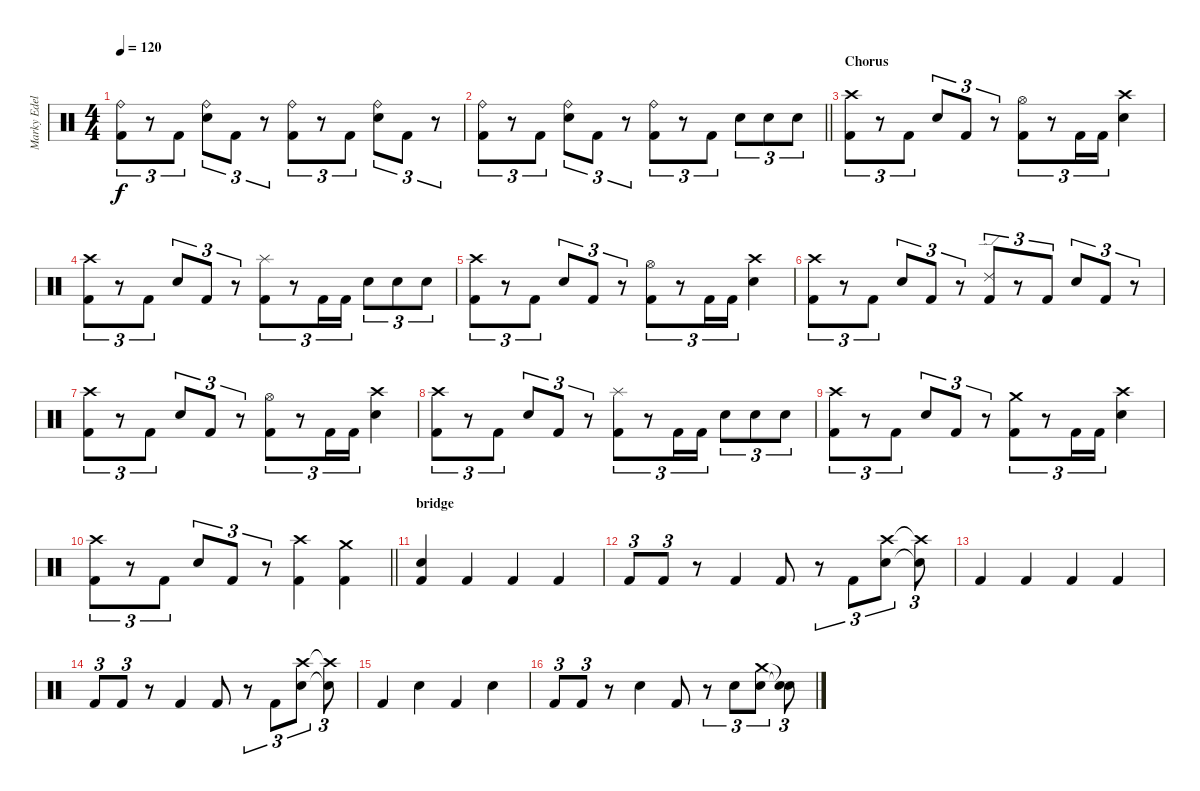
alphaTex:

\track ("Marky Edelmann" "Marky Edel") {instrument percussion}
\staff {score}
\articulation defaults
\ts (4 4)
\tempo 120
\clef neutral
\ks c
("Ride (bell)" "Kick (hit) 2").8{tu (3 2) dy f} r.8{tu (3 2)} "Kick (hit) 2".8{tu (3 2)} ("Ride (bell)" "Snare (hit) 2").8{tu (3 2)} "Kick (hit) 2".8{tu (3 2)} r.8{tu (3 2)} ("Ride (bell)" "Kick (hit) 2").8{tu (3 2)} r.8{tu (3 2)} "Kick (hit) 2".8{tu (3 2)} ("Ride (bell)" "Snare (hit) 2").8{tu (3 2)} "Kick (hit) 2".8{tu (3 2)} r.8{tu (3 2)} |
\barLineRight lightlight
("Ride (bell)" "Kick (hit) 2").8{tu (3 2)} r.8{tu (3 2)} "Kick (hit) 2".8{tu (3 2)} ("Ride (bell)" "Snare (hit) 2").8{tu (3 2)} "Kick (hit) 2".8{tu (3 2)} r.8{tu (3 2)} ("Ride (bell)" "Kick (hit) 2").8{tu (3 2)} r.8{tu (3 2)} "Kick (hit) 2".8{tu (3 2)} "Snare (hit) 2".8{tu (3 2)} "Snare (hit) 2".8{tu (3 2)} "Snare (hit) 2".8{tu (3 2)} |
\section ("" "Chorus")
("Crash high (hit)" "Kick (hit) 2").8{tu (3 2)} r.8{tu (3 2)} "Kick (hit) 2".8{tu (3 2)} "Snare (hit) 2".8{tu (3 2)} "Kick (hit) 2".8{tu (3 2)} r.8{tu (3 2)} ("Hi-Hat (open)" "Kick (hit) 2").8{tu (3 2)} r.8{tu (3 2)} "Kick (hit) 2".16{tu (3 2)} "Kick (hit) 2".16{tu (3 2)} ("Crash high (hit)" "Snare (hit) 2").4 |
("Crash high (hit)" "Kick (hit) 2").8{tu (3 2)} r.8{tu (3 2)} "Kick (hit) 2".8{tu (3 2)} "Snare (hit) 2".8{tu (3 2)} "Kick (hit) 2".8{tu (3 2)} r.8{tu (3 2)} ("Splash (hit)" "Kick (hit) 2").8{tu (3 2)} r.8{tu (3 2)} "Kick (hit) 2".16{tu (3 2)} "Kick (hit) 2".16{tu (3 2)} "Snare (hit) 2".8{tu (3 2)} "Snare (hit) 2".8{tu (3 2)} "Snare (hit) 2".8{tu (3 2)} |
("Crash high (hit)" "Kick (hit) 2").8{tu (3 2)} r.8{tu (3 2)} "Kick (hit) 2".8{tu (3 2)} "Snare (hit) 2".8{tu (3 2)} "Kick (hit) 2".8{tu (3 2)} r.8{tu (3 2)} ("Hi-Hat (open)" "Kick (hit) 2").8{tu (3 2)} r.8{tu (3 2)} "Kick (hit) 2".16{tu (3 2)} "Kick (hit) 2".16{tu (3 2)} ("Crash high (hit)" "Snare (hit) 2").4 |
("Crash high (hit)" "Kick (hit) 2").8{tu (3 2)} r.8{tu (3 2)} "Kick (hit) 2".8{tu (3 2)} "Snare (hit) 2".8{tu (3 2)} "Kick (hit) 2".8{tu (3 2)} r.8{tu (3 2)} ("Ride (edge) 2" "Kick (hit) 2").8{tu (3 2)} r.8{tu (3 2)} "Kick (hit) 2".8{tu (3 2)} "Snare (hit) 2".8{tu (3 2)} "Kick (hit) 2".8{tu (3 2)} r.8{tu (3 2)} |
("Crash high (hit)" "Kick (hit) 2").8{tu (3 2)} r.8{tu (3 2)} "Kick (hit) 2".8{tu (3 2)} "Snare (hit) 2".8{tu (3 2)} "Kick (hit) 2".8{tu (3 2)} r.8{tu (3 2)} ("Hi-Hat (open)" "Kick (hit) 2").8{tu (3 2)} r.8{tu (3 2)} "Kick (hit) 2".16{tu (3 2)} "Kick (hit) 2".16{tu (3 2)} ("Crash high (hit)" "Snare (hit) 2").4 |
("Crash high (hit)" "Kick (hit) 2").8{tu (3 2)} r.8{tu (3 2)} "Kick (hit) 2".8{tu (3 2)} "Snare (hit) 2".8{tu (3 2)} "Kick (hit) 2".8{tu (3 2)} r.8{tu (3 2)} ("Splash (hit)" "Kick (hit) 2").8{tu (3 2)} r.8{tu (3 2)} "Kick (hit) 2".16{tu (3 2)} "Kick (hit) 2".16{tu (3 2)} "Snare (hit) 2".8{tu (3 2)} "Snare (hit) 2".8{tu (3 2)} "Snare (hit) 2".8{tu (3 2)} |
("Crash high (hit)" "Kick (hit) 2").8{tu (3 2)} r.8{tu (3 2)} "Kick (hit) 2".8{tu (3 2)} "Snare (hit) 2".8{tu (3 2)} "Kick (hit) 2".8{tu (3 2)} r.8{tu (3 2)} ("Crash medium (hit)" "Kick (hit) 2").8{tu (3 2)} r.8{tu (3 2)} "Kick (hit) 2".16{tu (3 2)} "Kick (hit) 2".16{tu (3 2)} ("Crash high (hit)" "Snare (hit) 2").4 |
\barLineRight lightlight
("Crash high (hit)" "Kick (hit) 2").8{tu (3 2)} r.8{tu (3 2)} "Kick (hit) 2".8{tu (3 2)} "Snare (hit) 2".8{tu (3 2)} "Kick (hit) 2".8{tu (3 2)} r.8{tu (3 2)} ("Crash high (hit)" "Kick (hit) 2").4 ("Crash medium (hit)" "Kick (hit) 2").4 |
\section ("" "bridge")
("Snare (hit)" "Kick (hit) 2").4 "Kick (hit) 2".4 "Kick (hit) 2".4 "Kick (hit) 2".4 |
"Kick (hit) 2".8{tu (3 2)} "Kick (hit) 2".8{tu (3 2)} r.8 "Kick (hit) 2".4 "Kick (hit) 2".8 r.8{tu (3 2)} "Kick (hit) 2".8{tu (3 2)} ("Crash high (hit)" "Snare (hit) 2").8{tu (3 2)} ("Crash high (hit)"{t} "Snare (hit) 2"{t}).8{tu (3 2)} |
"Kick (hit) 2".4 "Kick (hit) 2".4 "Kick (hit) 2".4 "Kick (hit) 2".4 |
"Kick (hit) 2".8{tu (3 2)} "Kick (hit) 2".8{tu (3 2)} r.8 "Kick (hit) 2".4 "Kick (hit) 2".8 r.8{tu (3 2)} "Kick (hit) 2".8{tu (3 2)} ("Crash high (hit)" "Snare (hit) 2").8{tu (3 2)} ("Crash high (hit)"{t} "Snare (hit) 2"{t}).8{tu (3 2)} |
"Kick (hit) 2".4 "Snare (hit) 2".4 "Kick (hit) 2".4 "Snare (hit) 2".4 |
"Kick (hit) 2".8{tu (3 2)} "Kick (hit) 2".8{tu (3 2)} r.8 "Snare (hit) 2".4 "Kick (hit) 2".8 r.8{tu (3 2)} "Snare (hit) 2".8{tu (3 2)} ("Crash medium (hit)" "Snare (hit) 2").8{tu (3 2)} ("Snare (hit)"{t} "Snare (hit) 2"{t}).8{tu (3 2)}
